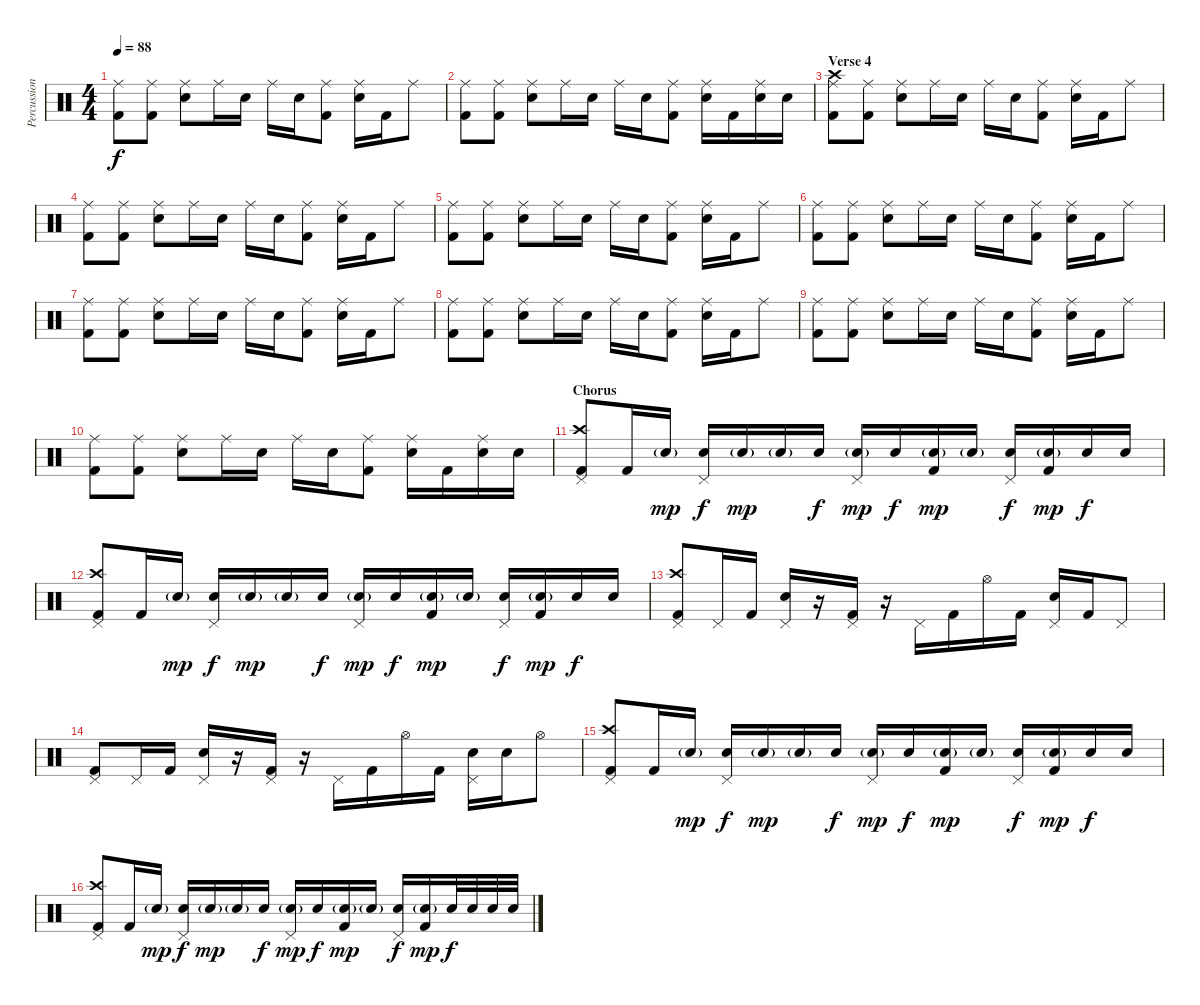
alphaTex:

\track ("Percussion" "Percussion") {instrument percussion}
\staff {score}
\articulation defaults
\ts (4 4)
\tempo 88
\clef neutral
\ks c
("Kick (hit) 2" "Ride (middle)").8{dy f} ("Kick (hit) 2" "Ride (middle)").8 ("Electric Snare (hit)" "Ride (middle)").8 "Ride (middle)".16 "Electric Snare (hit)".16 "Ride (middle)".16 "Electric Snare (hit)".16 ("Kick (hit) 2" "Ride (middle)").8 ("Electric Snare (hit)" "Ride (middle)").16 "Kick (hit) 2".16 "Ride (middle)".8 |
("Kick (hit) 2" "Ride (middle)").8 ("Kick (hit) 2" "Ride (middle)").8 ("Electric Snare (hit)" "Ride (middle)").8 "Ride (middle)".16 "Electric Snare (hit)".16 "Ride (middle)".16 "Electric Snare (hit)".16 ("Kick (hit) 2" "Ride (middle)").8 ("Electric Snare (hit)" "Ride (middle)").16 "Kick (hit) 2".16 ("Electric Snare (hit)" "Ride (middle)").16 "Electric Snare (hit)".16 |
\section ("" "Verse 4")
("Kick (hit) 2" "Ride (middle)" "Crash high (hit)").8 ("Kick (hit) 2" "Ride (middle)").8 ("Electric Snare (hit)" "Ride (middle)").8 "Ride (middle)".16 "Electric Snare (hit)".16 "Ride (middle)".16 "Electric Snare (hit)".16 ("Kick (hit) 2" "Ride (middle)").8 ("Electric Snare (hit)" "Ride (middle)").16 "Kick (hit) 2".16 "Ride (middle)".8 |
("Kick (hit) 2" "Ride (middle)").8 ("Kick (hit) 2" "Ride (middle)").8 ("Electric Snare (hit)" "Ride (middle)").8 "Ride (middle)".16 "Electric Snare (hit)".16 "Ride (middle)".16 "Electric Snare (hit)".16 ("Kick (hit) 2" "Ride (middle)").8 ("Electric Snare (hit)" "Ride (middle)").16 "Kick (hit) 2".16 "Ride (middle)".8 |
("Kick (hit) 2" "Ride (middle)").8 ("Kick (hit) 2" "Ride (middle)").8 ("Electric Snare (hit)" "Ride (middle)").8 "Ride (middle)".16 "Electric Snare (hit)".16 "Ride (middle)".16 "Electric Snare (hit)".16 ("Kick (hit) 2" "Ride (middle)").8 ("Electric Snare (hit)" "Ride (middle)").16 "Kick (hit) 2".16 "Ride (middle)".8 |
("Kick (hit) 2" "Ride (middle)").8 ("Kick (hit) 2" "Ride (middle)").8 ("Electric Snare (hit)" "Ride (middle)").8 "Ride (middle)".16 "Electric Snare (hit)".16 "Ride (middle)".16 "Electric Snare (hit)".16 ("Kick (hit) 2" "Ride (middle)").8 ("Electric Snare (hit)" "Ride (middle)").16 "Kick (hit) 2".16 "Ride (middle)".8 |
("Kick (hit) 2" "Ride (middle)").8 ("Kick (hit) 2" "Ride (middle)").8 ("Electric Snare (hit)" "Ride (middle)").8 "Ride (middle)".16 "Electric Snare (hit)".16 "Ride (middle)".16 "Electric Snare (hit)".16 ("Kick (hit) 2" "Ride (middle)").8 ("Electric Snare (hit)" "Ride (middle)").16 "Kick (hit) 2".16 "Ride (middle)".8 |
("Kick (hit) 2" "Ride (middle)").8 ("Kick (hit) 2" "Ride (middle)").8 ("Electric Snare (hit)" "Ride (middle)").8 "Ride (middle)".16 "Electric Snare (hit)".16 "Ride (middle)".16 "Electric Snare (hit)".16 ("Kick (hit) 2" "Ride (middle)").8 ("Electric Snare (hit)" "Ride (middle)").16 "Kick (hit) 2".16 "Ride (middle)".8 |
("Kick (hit) 2" "Ride (middle)").8 ("Kick (hit) 2" "Ride (middle)").8 ("Electric Snare (hit)" "Ride (middle)").8 "Ride (middle)".16 "Electric Snare (hit)".16 "Ride (middle)".16 "Electric Snare (hit)".16 ("Kick (hit) 2" "Ride (middle)").8 ("Electric Snare (hit)" "Ride (middle)").16 "Kick (hit) 2".16 "Ride (middle)".8 |
("Kick (hit) 2" "Ride (middle)").8 ("Kick (hit) 2" "Ride (middle)").8 ("Electric Snare (hit)" "Ride (middle)").8 "Ride (middle)".16 "Electric Snare (hit)".16 "Ride (middle)".16 "Electric Snare (hit)".16 ("Kick (hit) 2" "Ride (middle)").8 ("Electric Snare (hit)" "Ride (middle)").16 "Kick (hit) 2".16 ("Electric Snare (hit)" "Ride (middle)").16 "Electric Snare (hit)".16 |
\section ("" "Chorus")
("Kick (hit) 2" "Pedal Hi-Hat (hit)" "Crash high (hit)").8 "Kick (hit) 2".16 "Electric Snare (hit)"{g}.16{dy mp} ("Electric Snare (hit)" "Pedal Hi-Hat (hit)").16{dy f} "Electric Snare (hit)"{g}.16{dy mp} "Electric Snare (hit)"{g}.16 "Electric Snare (hit)".16{dy f} ("Electric Snare (hit)"{g} "Pedal Hi-Hat (hit)").16{dy mp} "Electric Snare (hit)".16{dy f} ("Kick (hit) 2" "Electric Snare (hit)"{g}).16{dy mp} "Electric Snare (hit)"{g}.16 ("Electric Snare (hit)" "Pedal Hi-Hat (hit)").16{dy f} ("Kick (hit) 2" "Electric Snare (hit)"{g}).16{dy mp} "Electric Snare (hit)".16{dy f} "Electric Snare (hit)".16 |
("Kick (hit) 2" "Pedal Hi-Hat (hit)" "Crash high (hit)").8 "Kick (hit) 2".16 "Electric Snare (hit)"{g}.16{dy mp} ("Electric Snare (hit)" "Pedal Hi-Hat (hit)").16{dy f} "Electric Snare (hit)"{g}.16{dy mp} "Electric Snare (hit)"{g}.16 "Electric Snare (hit)".16{dy f} ("Electric Snare (hit)"{g} "Pedal Hi-Hat (hit)").16{dy mp} "Electric Snare (hit)".16{dy f} ("Kick (hit) 2" "Electric Snare (hit)"{g}).16{dy mp} "Electric Snare (hit)"{g}.16 ("Electric Snare (hit)" "Pedal Hi-Hat (hit)").16{dy f} ("Kick (hit) 2" "Electric Snare (hit)"{g}).16{dy mp} "Electric Snare (hit)".16{dy f} "Electric Snare (hit)".16 |
("Kick (hit) 2" "Pedal Hi-Hat (hit)" "Crash high (hit)").8 "Pedal Hi-Hat (hit)".16 "Kick (hit) 2".16 ("Electric Snare (hit)" "Pedal Hi-Hat (hit)").16 r.16 ("Kick (hit) 2" "Pedal Hi-Hat (hit)").16 r.16 "Pedal Hi-Hat (hit)".16 "Kick (hit) 2".16 "Hi-Hat (open)".16 "Kick (hit) 2".16 ("Electric Snare (hit)" "Pedal Hi-Hat (hit)").16 "Kick (hit) 2".16 "Pedal Hi-Hat (hit)".8 |
("Kick (hit) 2" "Pedal Hi-Hat (hit)").8 "Pedal Hi-Hat (hit)".16 "Kick (hit) 2".16 ("Electric Snare (hit)" "Pedal Hi-Hat (hit)").16 r.16 ("Kick (hit) 2" "Pedal Hi-Hat (hit)").16 r.16 "Pedal Hi-Hat (hit)".16 "Kick (hit) 2".16 "Hi-Hat (open)".16 "Kick (hit) 2".16 ("Electric Snare (hit)" "Pedal Hi-Hat (hit)").16 "Electric Snare (hit)".16 "Hi-Hat (open)".8 |
("Kick (hit) 2" "Pedal Hi-Hat (hit)" "Crash high (hit)").8 "Kick (hit) 2".16 "Electric Snare (hit)"{g}.16{dy mp} ("Electric Snare (hit)" "Pedal Hi-Hat (hit)").16{dy f} "Electric Snare (hit)"{g}.16{dy mp} "Electric Snare (hit)"{g}.16 "Electric Snare (hit)".16{dy f} ("Electric Snare (hit)"{g} "Pedal Hi-Hat (hit)").16{dy mp} "Electric Snare (hit)".16{dy f} ("Kick (hit) 2" "Electric Snare (hit)"{g}).16{dy mp} "Electric Snare (hit)"{g}.16 ("Electric Snare (hit)" "Pedal Hi-Hat (hit)").16{dy f} ("Kick (hit) 2" "Electric Snare (hit)"{g}).16{dy mp} "Electric Snare (hit)".16{dy f} "Electric Snare (hit)".16 |
("Kick (hit) 2" "Pedal Hi-Hat (hit)" "Crash high (hit)").8 "Kick (hit) 2".16 "Electric Snare (hit)"{g}.16{dy mp} ("Electric Snare (hit)" "Pedal Hi-Hat (hit)").16{dy f} "Electric Snare (hit)"{g}.16{dy mp} "Electric Snare (hit)"{g}.16 "Electric Snare (hit)".16{dy f} ("Electric Snare (hit)"{g} "Pedal Hi-Hat (hit)").16{dy mp} "Electric Snare (hit)".16{dy f} ("Kick (hit) 2" "Electric Snare (hit)"{g}).16{dy mp} "Electric Snare (hit)"{g}.16 ("Electric Snare (hit)" "Pedal Hi-Hat (hit)").16{dy f} ("Kick (hit) 2" "Electric Snare (hit)"{g}).16{dy mp} "Electric Snare (hit)".32{dy f} "Electric Snare (hit)".32 "Electric Snare (hit)".32 "Electric Snare (hit)".32
